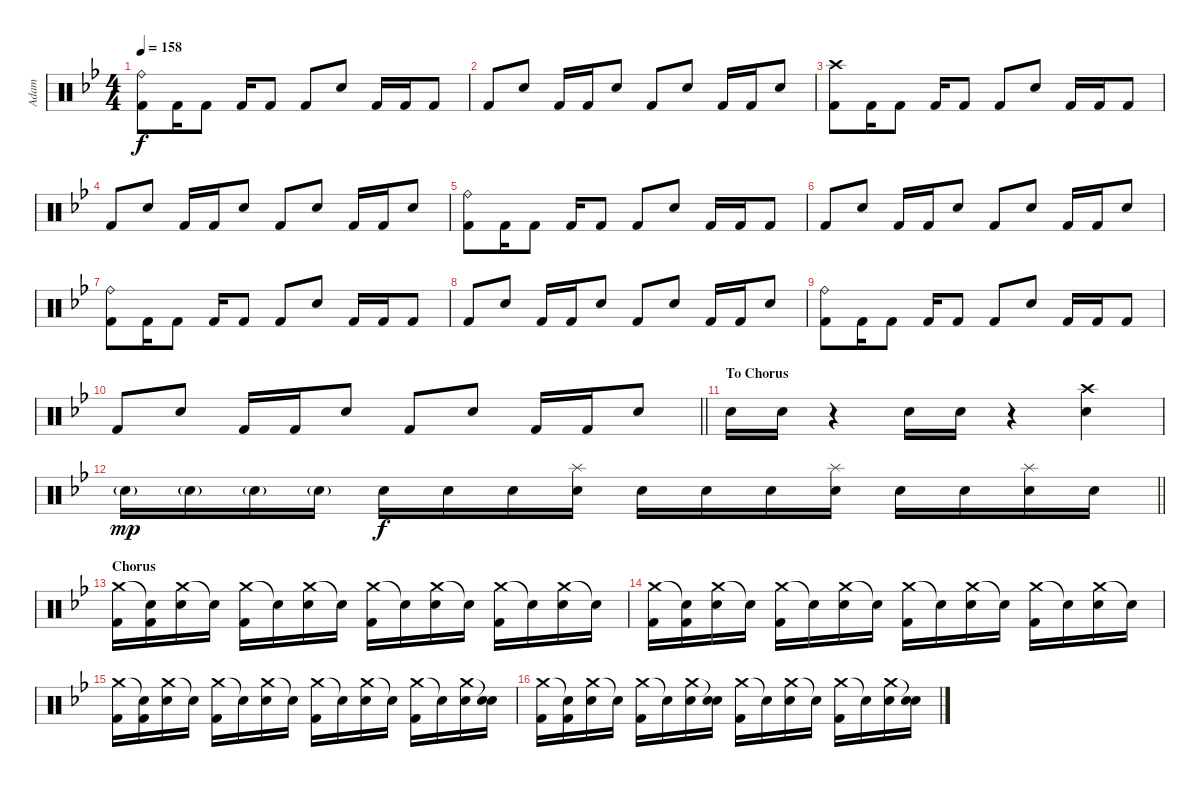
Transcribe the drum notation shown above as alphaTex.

\track ("Adam" "Adam") {instrument percussion}
\staff
\articulation defaults
\ts (4 4)
\tempo 158
\clef neutral
\ks gminor
("Ride (bell)" "Kick (hit) 2").8{dy f} "Kick (hit) 2".16 "Kick (hit) 2".8 "Kick (hit) 2".16 "Kick (hit) 2".8 "Kick (hit) 2".8 "Snare (hit) 2".8 "Kick (hit) 2".16 "Kick (hit) 2".16 "Kick (hit) 2".8 |
"Kick (hit) 2".8 "Snare (hit) 2".8 "Kick (hit) 2".16 "Kick (hit) 2".16 "Snare (hit) 2".8 "Kick (hit) 2".8 "Snare (hit) 2".8 "Kick (hit) 2".16 "Kick (hit) 2".16 "Snare (hit) 2".8 |
("Crash high (hit)" "Kick (hit) 2").8 "Kick (hit) 2".16 "Kick (hit) 2".8 "Kick (hit) 2".16 "Kick (hit) 2".8 "Kick (hit) 2".8 "Snare (hit) 2".8 "Kick (hit) 2".16 "Kick (hit) 2".16 "Kick (hit) 2".8 |
"Kick (hit) 2".8 "Snare (hit) 2".8 "Kick (hit) 2".16 "Kick (hit) 2".16 "Snare (hit) 2".8 "Kick (hit) 2".8 "Snare (hit) 2".8 "Kick (hit) 2".16 "Kick (hit) 2".16 "Snare (hit) 2".8 |
("Ride (bell)" "Kick (hit) 2").8 "Kick (hit) 2".16 "Kick (hit) 2".8 "Kick (hit) 2".16 "Kick (hit) 2".8 "Kick (hit) 2".8 "Snare (hit) 2".8 "Kick (hit) 2".16 "Kick (hit) 2".16 "Kick (hit) 2".8 |
"Kick (hit) 2".8 "Snare (hit) 2".8 "Kick (hit) 2".16 "Kick (hit) 2".16 "Snare (hit) 2".8 "Kick (hit) 2".8 "Snare (hit) 2".8 "Kick (hit) 2".16 "Kick (hit) 2".16 "Snare (hit) 2".8 |
("Ride (bell)" "Kick (hit) 2").8 "Kick (hit) 2".16 "Kick (hit) 2".8 "Kick (hit) 2".16 "Kick (hit) 2".8 "Kick (hit) 2".8 "Snare (hit) 2".8 "Kick (hit) 2".16 "Kick (hit) 2".16 "Kick (hit) 2".8 |
"Kick (hit) 2".8 "Snare (hit) 2".8 "Kick (hit) 2".16 "Kick (hit) 2".16 "Snare (hit) 2".8 "Kick (hit) 2".8 "Snare (hit) 2".8 "Kick (hit) 2".16 "Kick (hit) 2".16 "Snare (hit) 2".8 |
("Ride (bell)" "Kick (hit) 2").8 "Kick (hit) 2".16 "Kick (hit) 2".8 "Kick (hit) 2".16 "Kick (hit) 2".8 "Kick (hit) 2".8 "Snare (hit) 2".8 "Kick (hit) 2".16 "Kick (hit) 2".16 "Kick (hit) 2".8 |
\barLineRight lightlight "Kick (hit) 2".8 "Snare (hit) 2".8 "Kick (hit) 2".16 "Kick (hit) 2".16 "Snare (hit) 2".8 "Kick (hit) 2".8 "Snare (hit) 2".8 "Kick (hit) 2".16 "Kick (hit) 2".16 "Snare (hit) 2".8
|
\section ("" "To Chorus")
"Snare (hit) 2".16 "Snare (hit) 2".16 r.4 "Snare (hit) 2".16 "Snare (hit) 2".16 r.4 ("Crash high (hit)" "Snare (hit) 2").4 |
\barLineRight lightlight "Snare (hit) 2"{g}.16{dy mp} "Snare (hit) 2"{g}.16 "Snare (hit) 2"{g}.16 "Snare (hit) 2"{g}.16 "Snare (hit) 2".16{dy f} "Snare (hit) 2".16 "Snare (hit) 2".16
("Splash (hit)" "Snare (hit) 2").16 "Snare (hit) 2".16 "Snare (hit) 2".16 "Snare (hit) 2".16 ("Splash (hit)" "Snare (hit) 2").16 "Snare (hit) 2".16 "Snare (hit) 2".16 ("Splash (hit)" "Snare (hit) 2").16 "Snare (hit) 2".16 |
\section ("" "Chorus")
("Crash medium (hit)" "Kick (hit) 2").16 ("Snare (hit)"{t} "Kick (hit) 2").16 ("Crash medium (hit)" "Snare (hit) 2").16 "Snare (hit)"{t}.16 ("Crash medium (hit)" "Kick (hit) 2").16 "Snare (hit)"{t}.16 ("Crash medium (hit)" "Snare (hit) 2").16 "Snare (hit)"{t}.16 ("Crash medium (hit)" "Kick (hit) 2").16 "Snare (hit)"{t}.16 ("Crash medium (hit)" "Snare (hit) 2").16 "Snare (hit)"{t}.16 ("Crash medium (hit)" "Kick (hit) 2").16 "Snare (hit)"{t}.16 ("Crash medium (hit)" "Snare (hit) 2").16 "Snare (hit)"{t}.16 |
("Crash medium (hit)" "Kick (hit) 2").16 ("Snare (hit)"{t} "Kick (hit) 2").16 ("Crash medium (hit)" "Snare (hit) 2").16 "Snare (hit)"{t}.16 ("Crash medium (hit)" "Kick (hit) 2").16 "Snare (hit)"{t}.16 ("Crash medium (hit)" "Snare (hit) 2").16 "Snare (hit)"{t}.16 ("Crash medium (hit)" "Kick (hit) 2").16 "Snare (hit)"{t}.16 ("Crash medium (hit)" "Snare (hit) 2").16 "Snare (hit)"{t}.16 ("Crash medium (hit)" "Kick (hit) 2").16 "Snare (hit)"{t}.16 ("Crash medium (hit)" "Snare (hit) 2").16 "Snare (hit)"{t}.16 |
("Crash medium (hit)" "Kick (hit) 2").16 ("Snare (hit)"{t} "Kick (hit) 2").16 ("Crash medium (hit)" "Snare (hit) 2").16 "Snare (hit)"{t}.16 ("Crash medium (hit)" "Kick (hit) 2").16 "Snare (hit)"{t}.16 ("Crash medium (hit)" "Snare (hit) 2").16 "Snare (hit)"{t}.16 ("Crash medium (hit)" "Kick (hit) 2").16 "Snare (hit)"{t}.16 ("Crash medium (hit)" "Snare (hit) 2").16 "Snare (hit)"{t}.16 ("Crash medium (hit)" "Kick (hit) 2").16 "Snare (hit)"{t}.16 ("Crash medium (hit)" "Snare (hit) 2").16 ("Snare (hit)"{t} "Snare (hit) 2").16 |
("Crash medium (hit)" "Kick (hit) 2").16 ("Snare (hit)"{t} "Kick (hit) 2").16 ("Crash medium (hit)" "Snare (hit) 2").16 "Snare (hit)"{t}.16 ("Crash medium (hit)" "Kick (hit) 2").16 "Snare (hit)"{t}.16 ("Crash medium (hit)" "Snare (hit) 2").16 ("Snare (hit)"{t} "Snare (hit) 2").16 ("Crash medium (hit)" "Kick (hit) 2").16 "Snare (hit)"{t}.16 ("Crash medium (hit)" "Snare (hit) 2").16 "Snare (hit)"{t}.16 ("Crash medium (hit)" "Kick (hit) 2").16 "Snare (hit)"{t}.16 ("Crash medium (hit)" "Snare (hit) 2").16 ("Snare (hit)"{t} "Snare (hit) 2").16
